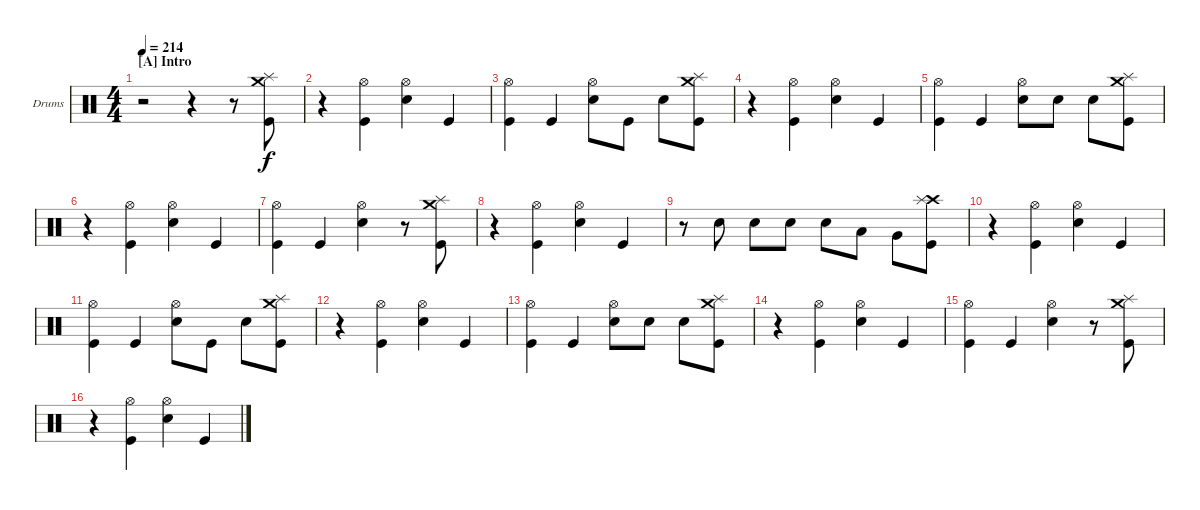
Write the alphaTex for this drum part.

\defaultSystemsLayout 4
\bracketExtendMode groupsimilarinstruments
\firstSystemTrackNameOrientation horizontal
\otherSystemsTrackNameOrientation horizontal
\track ("Brandon" "Drums") {instrument percussion}
\staff {score}
\articulation defaults
\ts (4 4)
\section ("A" "Intro")
\tempo 214
\clef neutral
\ks c
r.2{dy f} r.4 r.8 ("Kick (hit)" "Crash medium (hit)" "Splash (hit)").8 |
r.4 ("Kick (hit)" "Hi-Hat (open)").4 ("Snare (hit) 2" "Hi-Hat (open)").4 "Kick (hit)".4 |
("Kick (hit)" "Hi-Hat (open)").4 "Kick (hit)".4 ("Snare (hit) 2" "Hi-Hat (open)").8 "Kick (hit)".8 "Snare (hit) 2".8 ("Kick (hit)" "Crash medium (hit)" "Splash (hit)").8 |
r.4 ("Kick (hit)" "Hi-Hat (open)").4 ("Snare (hit) 2" "Hi-Hat (open)").4 "Kick (hit)".4 |
("Kick (hit)" "Hi-Hat (open)").4 "Kick (hit)".4 ("Snare (hit) 2" "Hi-Hat (open)").8 "Snare (hit) 2".8 "Snare (hit) 2".8 ("Kick (hit)" "Crash medium (hit)" "Splash (hit)").8 |
r.4 ("Kick (hit)" "Hi-Hat (open)").4 ("Snare (hit) 2" "Hi-Hat (open)").4 "Kick (hit)".4 |
("Kick (hit)" "Hi-Hat (open)").4 "Kick (hit)".4 ("Snare (hit) 2" "Hi-Hat (open)").4 r.8 ("Kick (hit)" "Crash medium (hit)" "Splash (hit)").8 |
r.4 ("Kick (hit)" "Hi-Hat (open)").4 ("Snare (hit) 2" "Hi-Hat (open)").4 "Kick (hit)".4 |
r.8 "Snare (hit) 2".8 "Snare (hit) 2".8 "Snare (hit) 2".8 "Snare (hit) 2".8 "Low Tom (hit)".8 "Very Low Tom (hit)".8 ("Kick (hit)" "Crash high (hit)" "Splash (hit)").8 |
r.4 ("Kick (hit)" "Hi-Hat (open)").4 ("Snare (hit) 2" "Hi-Hat (open)").4 "Kick (hit)".4 |
("Kick (hit)" "Hi-Hat (open)").4 "Kick (hit)".4 ("Snare (hit) 2" "Hi-Hat (open)").8 "Kick (hit)".8 "Snare (hit) 2".8 ("Kick (hit)" "Crash medium (hit)" "Splash (hit)").8 |
r.4 ("Kick (hit)" "Hi-Hat (open)").4 ("Snare (hit) 2" "Hi-Hat (open)").4 "Kick (hit)".4 |
("Kick (hit)" "Hi-Hat (open)").4 "Kick (hit)".4 ("Snare (hit) 2" "Hi-Hat (open)").8 "Snare (hit) 2".8 "Snare (hit) 2".8 ("Kick (hit)" "Crash medium (hit)" "Splash (hit)").8 |
r.4 ("Kick (hit)" "Hi-Hat (open)").4 ("Snare (hit) 2" "Hi-Hat (open)").4 "Kick (hit)".4 |
("Kick (hit)" "Hi-Hat (open)").4 "Kick (hit)".4 ("Snare (hit) 2" "Hi-Hat (open)").4 r.8 ("Kick (hit)" "Crash medium (hit)" "Splash (hit)").8 |
r.4 ("Kick (hit)" "Hi-Hat (open)").4 ("Snare (hit) 2" "Hi-Hat (open)").4 "Kick (hit)".4
